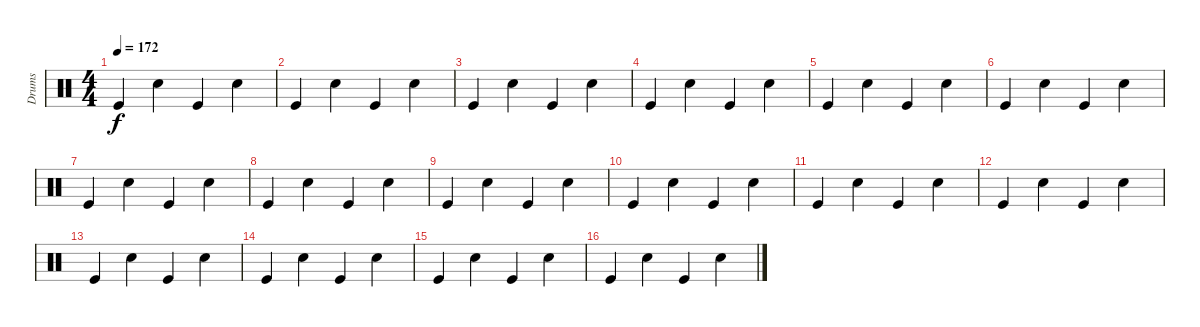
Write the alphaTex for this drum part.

\track ("Drums" "Drums") {instrument percussion}
\staff {score}
\articulation defaults
\ts (4 4)
\tempo 172
\clef neutral
\ks c "Kick (hit)".4{dy f} "Snare (hit) 2".4 "Kick (hit)".4 "Snare (hit) 2".4
|
"Kick (hit)".4 "Snare (hit) 2".4 "Kick (hit)".4 "Snare (hit) 2".4 |
"Kick (hit)".4 "Snare (hit) 2".4 "Kick (hit)".4 "Snare (hit) 2".4 |
"Kick (hit)".4 "Snare (hit) 2".4 "Kick (hit)".4 "Snare (hit) 2".4 |
"Kick (hit)".4 "Snare (hit) 2".4 "Kick (hit)".4 "Snare (hit) 2".4 |
"Kick (hit)".4 "Snare (hit) 2".4 "Kick (hit)".4 "Snare (hit) 2".4 |
"Kick (hit)".4 "Snare (hit) 2".4 "Kick (hit)".4 "Snare (hit) 2".4 |
"Kick (hit)".4 "Snare (hit) 2".4 "Kick (hit)".4 "Snare (hit) 2".4 |
"Kick (hit)".4 "Snare (hit) 2".4 "Kick (hit)".4 "Snare (hit) 2".4 |
"Kick (hit)".4 "Snare (hit) 2".4 "Kick (hit)".4 "Snare (hit) 2".4 |
"Kick (hit)".4 "Snare (hit) 2".4 "Kick (hit)".4 "Snare (hit) 2".4 |
"Kick (hit)".4 "Snare (hit) 2".4 "Kick (hit)".4 "Snare (hit) 2".4 |
"Kick (hit)".4 "Snare (hit) 2".4 "Kick (hit)".4 "Snare (hit) 2".4 |
"Kick (hit)".4 "Snare (hit) 2".4 "Kick (hit)".4 "Snare (hit) 2".4 |
"Kick (hit)".4 "Snare (hit) 2".4 "Kick (hit)".4 "Snare (hit) 2".4 |
"Kick (hit)".4 "Snare (hit) 2".4 "Kick (hit)".4 "Snare (hit) 2".4
